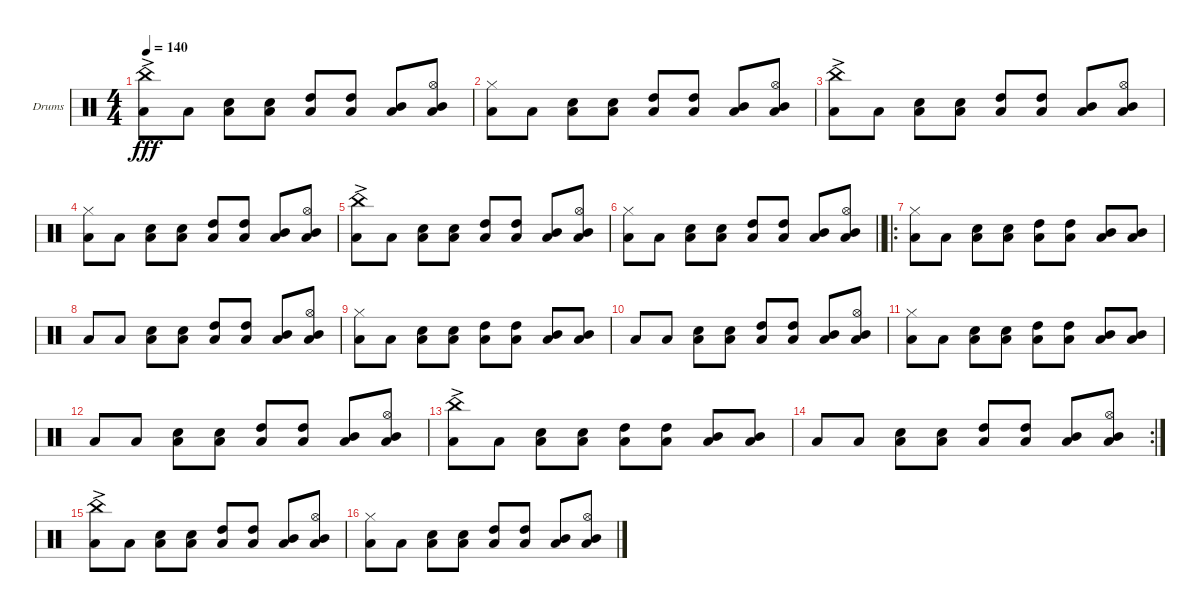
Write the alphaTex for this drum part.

\defaultSystemsLayout 4
\bracketExtendMode groupsimilarinstruments
\firstSystemTrackNameOrientation horizontal
\otherSystemsTrackNameOrientation horizontal
\track ("Drumkit" "Drums") {instrument percussion}
\staff {score}
\articulation defaults
\ts (4 4)
\tempo 140
\clef neutral
\scale
0.333333
\ks c
("Low Tom (hit)" "China (hit)"{ac}).8{dy fff} "Low Tom (hit)".8 ("Low Tom (hit)" "Snare (hit) 2").8 ("Low Tom (hit)" "Snare (hit) 2").8 ("Low Tom (hit)" "High Tom (hit)").8 ("Low Tom (hit)" "High Tom (hit)").8 ("Low Tom (hit)" "Mid Tom (hit)").8{beam invert} ("Low Tom (hit)" "Mid Tom (hit)" "Hi-Hat (open)").8 |
\scale
0.333333 ("Low Tom (hit)" "Hi-Hat (closed)").8 "Low Tom (hit)".8 ("Low Tom (hit)" "Snare (hit) 2").8 ("Low Tom (hit)" "Snare (hit) 2").8 ("Low Tom (hit)" "High Tom (hit)").8 ("Low Tom (hit)" "High Tom (hit)").8 ("Low Tom (hit)" "Mid Tom (hit)").8{beam invert} ("Low Tom (hit)" "Mid Tom (hit)" "Hi-Hat (open)").8 |
\scale
0.333333 ("Low Tom (hit)" "China (hit)"{ac}).8 "Low Tom (hit)".8 ("Low Tom (hit)" "Snare (hit) 2").8 ("Low Tom (hit)" "Snare (hit) 2").8 ("Low Tom (hit)" "High Tom (hit)").8 ("Low Tom (hit)" "High Tom (hit)").8 ("Low Tom (hit)" "Mid Tom (hit)").8{beam invert} ("Low Tom (hit)" "Mid Tom (hit)" "Hi-Hat (open)").8 |
\scale
0.333333 ("Low Tom (hit)" "Hi-Hat (closed)").8 "Low Tom (hit)".8 ("Low Tom (hit)" "Snare (hit) 2").8 ("Low Tom (hit)" "Snare (hit) 2").8 ("Low Tom (hit)" "High Tom (hit)").8 ("Low Tom (hit)" "High Tom (hit)").8 ("Low Tom (hit)" "Mid Tom (hit)").8{beam invert} ("Low Tom (hit)" "Mid Tom (hit)" "Hi-Hat (open)").8 |
\scale
0.311475 ("Low Tom (hit)" "China (hit)"{ac}).8 "Low Tom (hit)".8 ("Low Tom (hit)" "Snare (hit) 2").8 ("Low Tom (hit)" "Snare (hit) 2").8 ("Low Tom (hit)" "High Tom (hit)").8 ("Low Tom (hit)" "High Tom (hit)").8 ("Low Tom (hit)" "Mid Tom (hit)").8{beam invert} ("Low Tom (hit)" "Mid Tom (hit)" "Hi-Hat (open)").8 |
\scale
0.311475
\barLineRight lightlight
("Low Tom (hit)" "Hi-Hat (closed)").8 "Low Tom (hit)".8 ("Low Tom (hit)" "Snare (hit) 2").8 ("Low Tom (hit)" "Snare (hit) 2").8 ("Low Tom (hit)" "High Tom (hit)").8 ("Low Tom (hit)" "High Tom (hit)").8 ("Low Tom (hit)" "Mid Tom (hit)").8{beam invert} ("Low Tom (hit)" "Mid Tom (hit)" "Hi-Hat (open)").8 |
\ro
\scale
0.377049 ("Low Tom (hit)" "Hi-Hat (closed)").8 "Low Tom (hit)".8 ("Low Tom (hit)" "Snare (hit) 2").8 ("Low Tom (hit)" "Snare (hit) 2").8 ("Low Tom (hit)" "High Tom (hit)").8 ("Low Tom (hit)" "High Tom (hit)").8 ("Low Tom (hit)" "Mid Tom (hit)").8 ("Low Tom (hit)" "Mid Tom (hit)").8 |
\scale
0.333333 "Low Tom (hit)".8 "Low Tom (hit)".8 ("Low Tom (hit)" "Snare (hit) 2").8 ("Low Tom (hit)" "Snare (hit) 2").8 ("Low Tom (hit)" "High Tom (hit)").8 ("Low Tom (hit)" "High Tom (hit)").8 ("Low Tom (hit)" "Mid Tom (hit)").8{beam invert} ("Low Tom (hit)" "Mid Tom (hit)" "Hi-Hat (open)").8 |
\scale
0.333333 ("Low Tom (hit)" "Hi-Hat (closed)").8 "Low Tom (hit)".8 ("Low Tom (hit)" "Snare (hit) 2").8 ("Low Tom (hit)" "Snare (hit) 2").8 ("Low Tom (hit)" "High Tom (hit)").8 ("Low Tom (hit)" "High Tom (hit)").8 ("Low Tom (hit)" "Mid Tom (hit)").8 ("Low Tom (hit)" "Mid Tom (hit)").8 |
\scale
0.333333 "Low Tom (hit)".8 "Low Tom (hit)".8 ("Low Tom (hit)" "Snare (hit) 2").8 ("Low Tom (hit)" "Snare (hit) 2").8 ("Low Tom (hit)" "High Tom (hit)").8 ("Low Tom (hit)" "High Tom (hit)").8 ("Low Tom (hit)" "Mid Tom (hit)").8{beam invert} ("Low Tom (hit)" "Mid Tom (hit)" "Hi-Hat (open)").8 |
\scale
0.333333 ("Low Tom (hit)" "Hi-Hat (closed)").8 "Low Tom (hit)".8 ("Low Tom (hit)" "Snare (hit) 2").8 ("Low Tom (hit)" "Snare (hit) 2").8 ("Low Tom (hit)" "High Tom (hit)").8 ("Low Tom (hit)" "High Tom (hit)").8 ("Low Tom (hit)" "Mid Tom (hit)").8 ("Low Tom (hit)" "Mid Tom (hit)").8 |
\scale
0.333333 "Low Tom (hit)".8 "Low Tom (hit)".8 ("Low Tom (hit)" "Snare (hit) 2").8 ("Low Tom (hit)" "Snare (hit) 2").8 ("Low Tom (hit)" "High Tom (hit)").8 ("Low Tom (hit)" "High Tom (hit)").8 ("Low Tom (hit)" "Mid Tom (hit)").8{beam invert} ("Low Tom (hit)" "Mid Tom (hit)" "Hi-Hat (open)").8 |
\scale
0.333333 ("Low Tom (hit)" "China (hit)"{ac}).8 "Low Tom (hit)".8 ("Low Tom (hit)" "Snare (hit) 2").8 ("Low Tom (hit)" "Snare (hit) 2").8 ("Low Tom (hit)" "High Tom (hit)").8 ("Low Tom (hit)" "High Tom (hit)").8 ("Low Tom (hit)" "Mid Tom (hit)").8 ("Low Tom (hit)" "Mid Tom (hit)").8 |
\rc 2
\scale
0.355932 "Low Tom (hit)".8 "Low Tom (hit)".8 ("Low Tom (hit)" "Snare (hit) 2").8 ("Low Tom (hit)" "Snare (hit) 2").8 ("Low Tom (hit)" "High Tom (hit)").8 ("Low Tom (hit)" "High Tom (hit)").8 ("Low Tom (hit)" "Mid Tom (hit)").8{beam invert} ("Low Tom (hit)" "Mid Tom (hit)" "Hi-Hat (open)").8 |
\scale
0.322034 ("Low Tom (hit)" "China (hit)"{ac}).8 "Low Tom (hit)".8 ("Low Tom (hit)" "Snare (hit) 2").8 ("Low Tom (hit)" "Snare (hit) 2").8 ("Low Tom (hit)" "High Tom (hit)").8 ("Low Tom (hit)" "High Tom (hit)").8 ("Low Tom (hit)" "Mid Tom (hit)").8{beam invert} ("Low Tom (hit)" "Mid Tom (hit)" "Hi-Hat (open)").8 |
\scale
0.322034 ("Low Tom (hit)" "Hi-Hat (closed)").8 "Low Tom (hit)".8 ("Low Tom (hit)" "Snare (hit) 2").8 ("Low Tom (hit)" "Snare (hit) 2").8 ("Low Tom (hit)" "High Tom (hit)").8 ("Low Tom (hit)" "High Tom (hit)").8 ("Low Tom (hit)" "Mid Tom (hit)").8{beam invert} ("Low Tom (hit)" "Mid Tom (hit)" "Hi-Hat (open)").8
